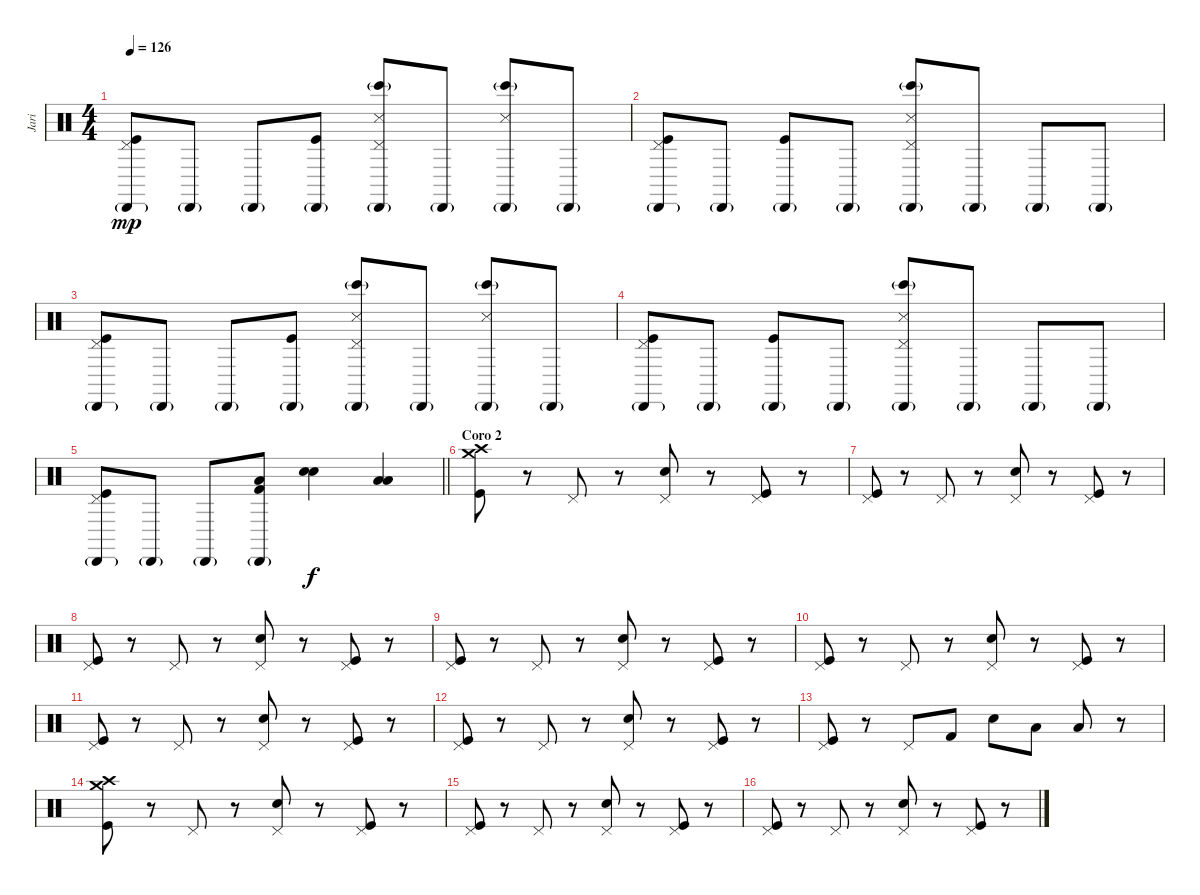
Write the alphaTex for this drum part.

\track ("Jari" "Jari") {instrument percussion}
\staff {score}
\articulation defaults
\ts (4 4)
\tempo 126
\clef neutral
\ks c
("Pedal Hi-Hat (hit)" "Cabasa (hit)"{g} "Kick (hit)").8{dy mp} "Cabasa (hit)"{g}.8 "Cabasa (hit)"{g}.8 ("Cabasa (hit)"{g} "Kick (hit)").8 ("Pedal Hi-Hat (hit)" "Cabasa (hit)"{g} "Bongo High (hit)"{g} "Metronome (hit)").8 "Cabasa (hit)"{g}.8 ("Cabasa (hit)"{g} "Bongo High (hit)"{g} "Metronome (hit)").8 "Cabasa (hit)"{g}.8 |
("Pedal Hi-Hat (hit)" "Cabasa (hit)"{g} "Kick (hit)").8 "Cabasa (hit)"{g}.8 ("Cabasa (hit)"{g} "Kick (hit)").8 "Cabasa (hit)"{g}.8 ("Pedal Hi-Hat (hit)" "Cabasa (hit)"{g} "Metronome (hit)" "Bongo High (hit)"{g}).8 "Cabasa (hit)"{g}.8 "Cabasa (hit)"{g}.8 "Cabasa (hit)"{g}.8 |
("Pedal Hi-Hat (hit)" "Cabasa (hit)"{g} "Kick (hit)").8 "Cabasa (hit)"{g}.8 "Cabasa (hit)"{g}.8 ("Cabasa (hit)"{g} "Kick (hit)").8 ("Pedal Hi-Hat (hit)" "Cabasa (hit)"{g} "Bongo High (hit)"{g} "Metronome (hit)").8 "Cabasa (hit)"{g}.8 ("Cabasa (hit)"{g} "Bongo High (hit)"{g} "Metronome (hit)").8 "Cabasa (hit)"{g}.8 |
("Pedal Hi-Hat (hit)" "Cabasa (hit)"{g} "Kick (hit)").8 "Cabasa (hit)"{g}.8 ("Cabasa (hit)"{g} "Kick (hit)").8 "Cabasa (hit)"{g}.8 ("Pedal Hi-Hat (hit)" "Cabasa (hit)"{g} "Metronome (hit)" "Bongo High (hit)"{g}).8 "Cabasa (hit)"{g}.8 "Cabasa (hit)"{g}.8 "Cabasa (hit)"{g}.8 |
\barLineRight lightlight
("Pedal Hi-Hat (hit)" "Cabasa (hit)"{g} "Kick (hit)").8 "Cabasa (hit)"{g}.8 "Cabasa (hit)"{g}.8 ("Cabasa (hit)"{g} "Low Tom (hit)" "Kick (hit) 2").8 ("Snare (hit) 2" "Snare (hit) 2").4{bd 120 dy f} ("Low Tom (hit)" "Low Tom (hit)").4 |
\section ("" "Coro 2")
("Crash medium (hit)" "Crash high (hit)" "Kick (hit)").8 r.8 "Pedal Hi-Hat (hit)".8 r.8 ("Pedal Hi-Hat (hit)" "Snare (hit) 2").8 r.8 ("Pedal Hi-Hat (hit)" "Kick (hit)").8 r.8 |
("Pedal Hi-Hat (hit)" "Kick (hit)").8 r.8 "Pedal Hi-Hat (hit)".8 r.8 ("Pedal Hi-Hat (hit)" "Snare (hit) 2").8 r.8 ("Pedal Hi-Hat (hit)" "Kick (hit)").8 r.8 |
("Pedal Hi-Hat (hit)" "Kick (hit)").8 r.8 "Pedal Hi-Hat (hit)".8 r.8 ("Pedal Hi-Hat (hit)" "Snare (hit) 2").8 r.8 ("Pedal Hi-Hat (hit)" "Kick (hit)").8 r.8 |
("Pedal Hi-Hat (hit)" "Kick (hit)").8 r.8 "Pedal Hi-Hat (hit)".8 r.8 ("Pedal Hi-Hat (hit)" "Snare (hit) 2").8 r.8 ("Pedal Hi-Hat (hit)" "Kick (hit)").8 r.8 |
("Pedal Hi-Hat (hit)" "Kick (hit)").8 r.8 "Pedal Hi-Hat (hit)".8 r.8 ("Pedal Hi-Hat (hit)" "Snare (hit) 2").8 r.8 ("Pedal Hi-Hat (hit)" "Kick (hit)").8 r.8 |
("Pedal Hi-Hat (hit)" "Kick (hit)").8 r.8 "Pedal Hi-Hat (hit)".8 r.8 ("Pedal Hi-Hat (hit)" "Snare (hit) 2").8 r.8 ("Pedal Hi-Hat (hit)" "Kick (hit)").8 r.8 |
("Pedal Hi-Hat (hit)" "Kick (hit)").8 r.8 "Pedal Hi-Hat (hit)".8 r.8 ("Pedal Hi-Hat (hit)" "Snare (hit) 2").8 r.8 ("Pedal Hi-Hat (hit)" "Kick (hit)").8 r.8 |
("Pedal Hi-Hat (hit)" "Kick (hit)").8 r.8 "Pedal Hi-Hat (hit)".8 "Kick (hit) 2".8 "Snare (hit) 2".8 "Low Tom (hit)".8 "Low Tom (hit)".8 r.8 |
("Crash medium (hit)" "Crash high (hit)" "Kick (hit)").8 r.8 "Pedal Hi-Hat (hit)".8 r.8 ("Pedal Hi-Hat (hit)" "Snare (hit) 2").8 r.8 ("Pedal Hi-Hat (hit)" "Kick (hit)").8 r.8 |
("Pedal Hi-Hat (hit)" "Kick (hit)").8 r.8 "Pedal Hi-Hat (hit)".8 r.8 ("Pedal Hi-Hat (hit)" "Snare (hit) 2").8 r.8 ("Pedal Hi-Hat (hit)" "Kick (hit)").8 r.8 |
("Pedal Hi-Hat (hit)" "Kick (hit)").8 r.8 "Pedal Hi-Hat (hit)".8 r.8 ("Pedal Hi-Hat (hit)" "Snare (hit) 2").8 r.8 ("Pedal Hi-Hat (hit)" "Kick (hit)").8 r.8
